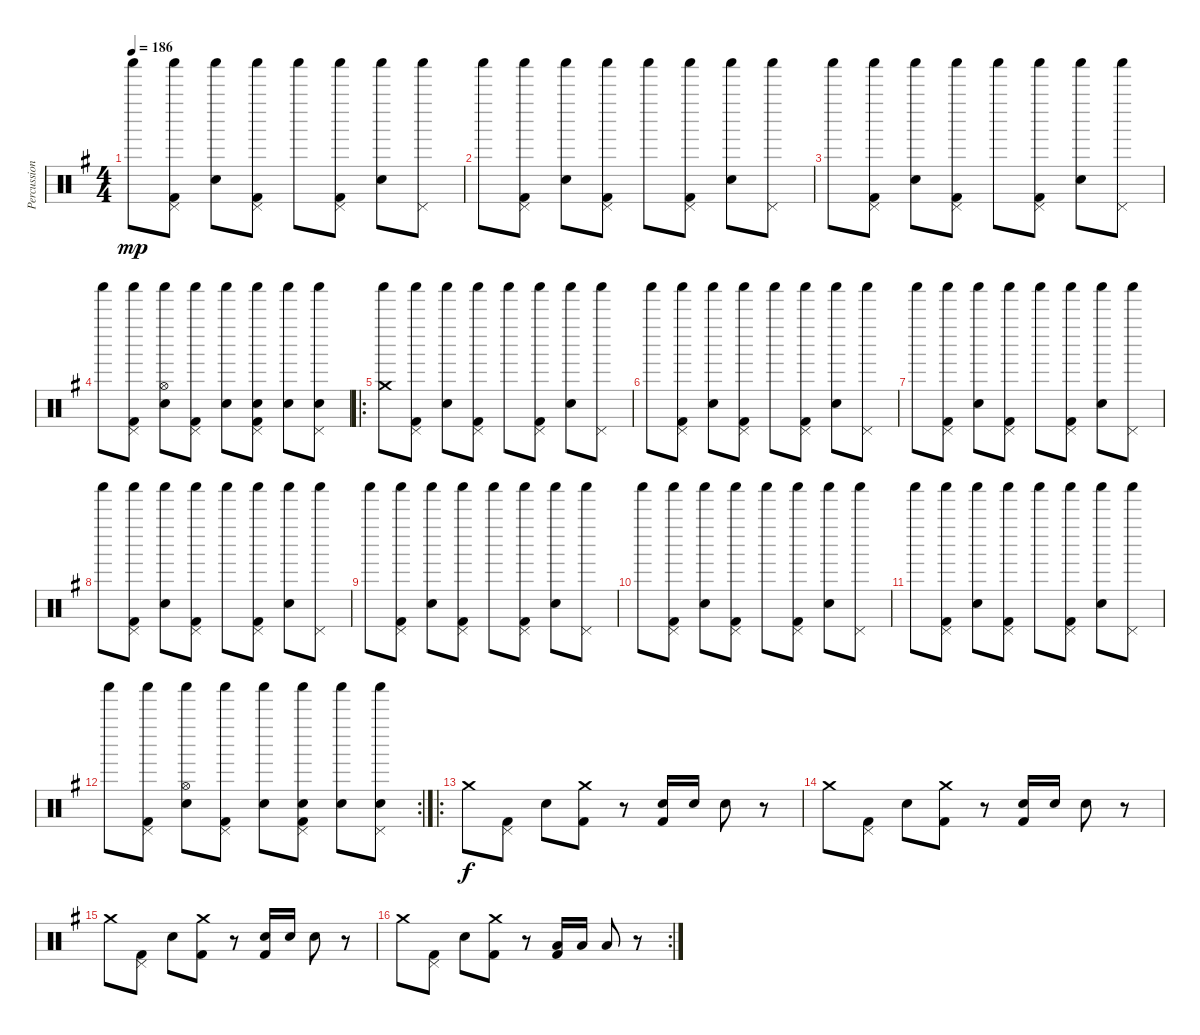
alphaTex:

\track ("Percussion" "Percussion") {instrument percussion}
\staff {score}
\articulation defaults
\ts (4 4)
\tempo 186
\clef neutral
\ks g "Shaker (hit)".8{dy mp}
("Shaker (hit)" "Pedal Hi-Hat (hit)" "Kick (hit) 2").8 ("Shaker (hit)" "Electric Snare (hit)").8 ("Shaker (hit)" "Pedal Hi-Hat (hit)" "Kick (hit) 2").8 "Shaker (hit)".8 ("Shaker (hit)" "Pedal Hi-Hat (hit)" "Kick (hit) 2").8 ("Shaker (hit)" "Electric Snare (hit)").8 ("Shaker (hit)" "Pedal Hi-Hat (hit)").8 |
"Shaker (hit)".8 ("Shaker (hit)" "Pedal Hi-Hat (hit)" "Kick (hit) 2").8 ("Shaker (hit)" "Electric Snare (hit)").8 ("Shaker (hit)" "Pedal Hi-Hat (hit)" "Kick (hit) 2").8 "Shaker (hit)".8 ("Shaker (hit)" "Pedal Hi-Hat (hit)" "Kick (hit) 2").8 ("Shaker (hit)" "Electric Snare (hit)").8 ("Shaker (hit)" "Pedal Hi-Hat (hit)").8 |
"Shaker (hit)".8 ("Shaker (hit)" "Pedal Hi-Hat (hit)" "Kick (hit) 2").8 ("Shaker (hit)" "Electric Snare (hit)").8 ("Shaker (hit)" "Pedal Hi-Hat (hit)" "Kick (hit) 2").8 "Shaker (hit)".8 ("Shaker (hit)" "Pedal Hi-Hat (hit)" "Kick (hit) 2").8 ("Shaker (hit)" "Electric Snare (hit)").8 ("Shaker (hit)" "Pedal Hi-Hat (hit)").8 |
"Shaker (hit)".8 ("Shaker (hit)" "Pedal Hi-Hat (hit)" "Kick (hit) 2").8 ("Shaker (hit)" "Hi-Hat (open)" "Electric Snare (hit)").8 ("Shaker (hit)" "Pedal Hi-Hat (hit)" "Kick (hit) 2").8 ("Shaker (hit)" "Electric Snare (hit)").8 ("Shaker (hit)" "Pedal Hi-Hat (hit)" "Electric Snare (hit)" "Kick (hit) 2").8 ("Shaker (hit)" "Electric Snare (hit)").8 ("Shaker (hit)" "Pedal Hi-Hat (hit)" "Electric Snare (hit)").8 |
\ro
("Shaker (hit)" "Crash medium (hit)").8 ("Shaker (hit)" "Pedal Hi-Hat (hit)" "Kick (hit) 2").8 ("Shaker (hit)" "Electric Snare (hit)").8 ("Shaker (hit)" "Pedal Hi-Hat (hit)" "Kick (hit) 2").8 "Shaker (hit)".8 ("Shaker (hit)" "Pedal Hi-Hat (hit)" "Kick (hit) 2").8 ("Shaker (hit)" "Electric Snare (hit)").8 ("Shaker (hit)" "Pedal Hi-Hat (hit)").8 |
"Shaker (hit)".8 ("Shaker (hit)" "Pedal Hi-Hat (hit)" "Kick (hit) 2").8 ("Shaker (hit)" "Electric Snare (hit)").8 ("Shaker (hit)" "Pedal Hi-Hat (hit)" "Kick (hit) 2").8 "Shaker (hit)".8 ("Shaker (hit)" "Pedal Hi-Hat (hit)" "Kick (hit) 2").8 ("Shaker (hit)" "Electric Snare (hit)").8 ("Shaker (hit)" "Pedal Hi-Hat (hit)").8 |
"Shaker (hit)".8 ("Shaker (hit)" "Pedal Hi-Hat (hit)" "Kick (hit) 2").8 ("Shaker (hit)" "Electric Snare (hit)").8 ("Shaker (hit)" "Pedal Hi-Hat (hit)" "Kick (hit) 2").8 "Shaker (hit)".8 ("Shaker (hit)" "Pedal Hi-Hat (hit)" "Kick (hit) 2").8 ("Shaker (hit)" "Electric Snare (hit)").8 ("Shaker (hit)" "Pedal Hi-Hat (hit)").8 |
"Shaker (hit)".8 ("Shaker (hit)" "Pedal Hi-Hat (hit)" "Kick (hit) 2").8 ("Shaker (hit)" "Electric Snare (hit)").8 ("Shaker (hit)" "Pedal Hi-Hat (hit)" "Kick (hit) 2").8 "Shaker (hit)".8 ("Shaker (hit)" "Pedal Hi-Hat (hit)" "Kick (hit) 2").8 ("Shaker (hit)" "Electric Snare (hit)").8 ("Shaker (hit)" "Pedal Hi-Hat (hit)").8 |
"Shaker (hit)".8 ("Shaker (hit)" "Pedal Hi-Hat (hit)" "Kick (hit) 2").8 ("Shaker (hit)" "Electric Snare (hit)").8 ("Shaker (hit)" "Pedal Hi-Hat (hit)" "Kick (hit) 2").8 "Shaker (hit)".8 ("Shaker (hit)" "Pedal Hi-Hat (hit)" "Kick (hit) 2").8 ("Shaker (hit)" "Electric Snare (hit)").8 ("Shaker (hit)" "Pedal Hi-Hat (hit)").8 |
"Shaker (hit)".8 ("Shaker (hit)" "Pedal Hi-Hat (hit)" "Kick (hit) 2").8 ("Shaker (hit)" "Electric Snare (hit)").8 ("Shaker (hit)" "Pedal Hi-Hat (hit)" "Kick (hit) 2").8 "Shaker (hit)".8 ("Shaker (hit)" "Pedal Hi-Hat (hit)" "Kick (hit) 2").8 ("Shaker (hit)" "Electric Snare (hit)").8 ("Shaker (hit)" "Pedal Hi-Hat (hit)").8 |
"Shaker (hit)".8 ("Shaker (hit)" "Pedal Hi-Hat (hit)" "Kick (hit) 2").8 ("Shaker (hit)" "Electric Snare (hit)").8 ("Shaker (hit)" "Pedal Hi-Hat (hit)" "Kick (hit) 2").8 "Shaker (hit)".8 ("Shaker (hit)" "Pedal Hi-Hat (hit)" "Kick (hit) 2").8 ("Shaker (hit)" "Electric Snare (hit)").8 ("Shaker (hit)" "Pedal Hi-Hat (hit)").8 |
\rc 2 "Shaker (hit)".8
("Shaker (hit)" "Pedal Hi-Hat (hit)" "Kick (hit) 2").8 ("Shaker (hit)" "Hi-Hat (open)" "Electric Snare (hit)").8 ("Shaker (hit)" "Pedal Hi-Hat (hit)" "Kick (hit) 2").8 ("Shaker (hit)" "Electric Snare (hit)").8 ("Shaker (hit)" "Pedal Hi-Hat (hit)" "Electric Snare (hit)" "Kick (hit) 2").8 ("Shaker (hit)" "Electric Snare (hit)").8 ("Shaker (hit)" "Pedal Hi-Hat (hit)" "Electric Snare (hit)").8 |
\ro "Crash medium (hit)".8{dy f}
("Pedal Hi-Hat (hit)" "Kick (hit) 2").8 "Electric Snare (hit)".8 ("Crash medium (hit)" "Kick (hit) 2").8 r.8 ("Electric Snare (hit)" "Kick (hit) 2").16 "Electric Snare (hit)".16 "Electric Snare (hit)".8 r.8 |
"Crash medium (hit)".8 ("Pedal Hi-Hat (hit)" "Kick (hit) 2").8 "Electric Snare (hit)".8 ("Crash medium (hit)" "Kick (hit) 2").8 r.8 ("Electric Snare (hit)" "Kick (hit) 2").16 "Electric Snare (hit)".16 "Electric Snare (hit)".8 r.8 |
"Crash medium (hit)".8 ("Pedal Hi-Hat (hit)" "Kick (hit) 2").8 "Electric Snare (hit)".8 ("Crash medium (hit)" "Kick (hit) 2").8 r.8 ("Electric Snare (hit)" "Kick (hit) 2").16 "Electric Snare (hit)".16 "Electric Snare (hit)".8 r.8 |
\rc 2 "Crash medium (hit)".8
("Pedal Hi-Hat (hit)" "Kick (hit) 2").8 "Electric Snare (hit)".8 ("Crash medium (hit)" "Kick (hit) 2").8 r.8 ("Low Tom (hit)" "Kick (hit) 2").16 "Low Tom (hit)".16 "Low Tom (hit)".8 r.8
